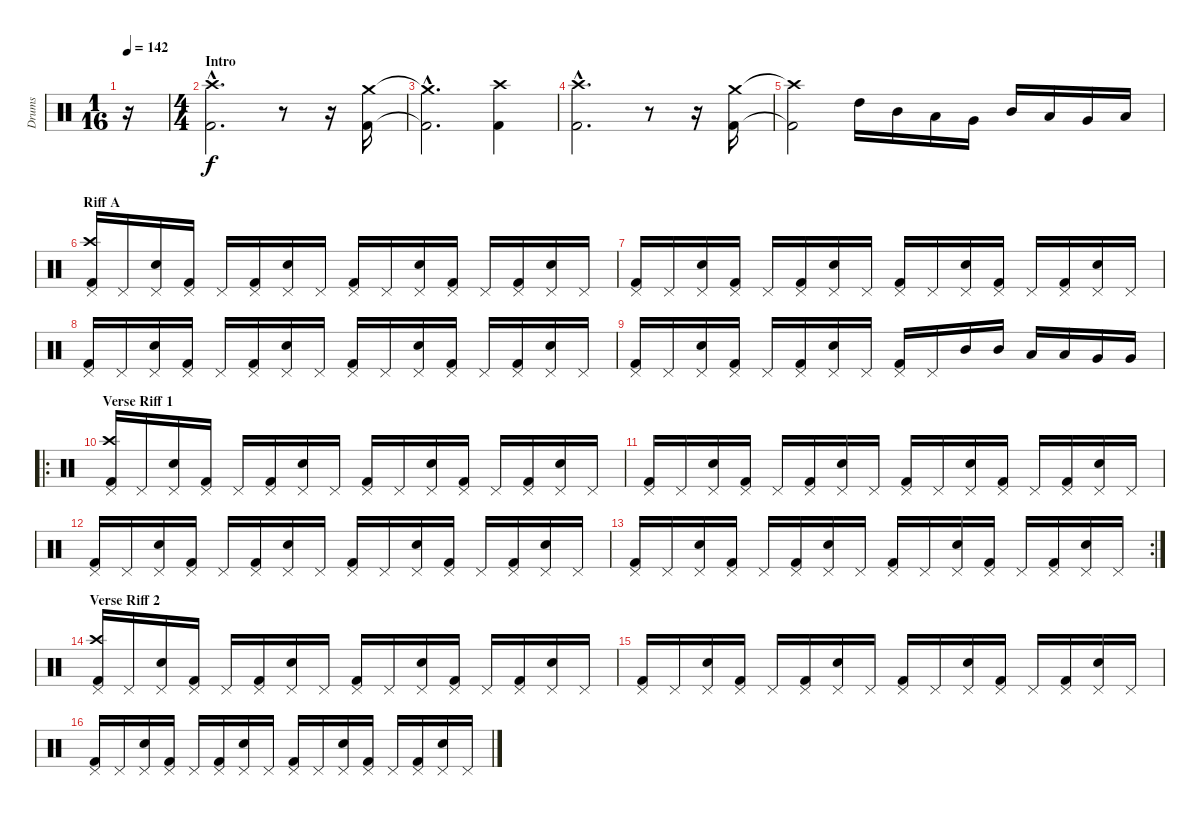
\track ("Drums" "Drums") {instrument percussion}
\staff {score}
\articulation defaults
\ts (1 16)
\tempo 142
\clef neutral
\ks c
r.16{dy f} |
\ts (4 4)
\section ("" "Intro")
("Kick (hit) 2"{hac} "Crash high (hit)"{hac}).2{d} r.8 r.16 ("Kick (hit) 2" "Crash medium (hit)").16 |
("Kick (hit) 2"{hac t} "Crash medium (hit)"{hac t}).2{d} ("Kick (hit) 2" "Crash high (hit)").4 |
("Kick (hit) 2"{hac} "Crash high (hit)"{hac}).2{d} r.8 r.16 ("Kick (hit) 2" "Crash medium (hit)").16 |
("Kick (hit) 2"{t} "Crash high (hit)"{t}).2 "High Tom (hit)".16 "Mid Tom (hit)".16 "Low Tom (hit)".16 "Very Low Tom (hit)".16 "Mid Tom (hit)".16 "Low Tom (hit)".16 "Very Low Tom (hit)".16 "Low Floor Tom (hit)".16 |
\section ("" "Riff A")
("Kick (hit) 2" "Pedal Hi-Hat (hit)" "Crash high (hit)").16 "Pedal Hi-Hat (hit)".16 ("Snare (hit) 2" "Pedal Hi-Hat (hit)").16 ("Kick (hit) 2" "Pedal Hi-Hat (hit)").16 "Pedal Hi-Hat (hit)".16 ("Kick (hit) 2" "Pedal Hi-Hat (hit)").16 ("Snare (hit) 2" "Pedal Hi-Hat (hit)").16 "Pedal Hi-Hat (hit)".16 ("Kick (hit) 2" "Pedal Hi-Hat (hit)").16 "Pedal Hi-Hat (hit)".16 ("Snare (hit) 2" "Pedal Hi-Hat (hit)").16 ("Kick (hit) 2" "Pedal Hi-Hat (hit)").16 "Pedal Hi-Hat (hit)".16 ("Kick (hit) 2" "Pedal Hi-Hat (hit)").16 ("Snare (hit) 2" "Pedal Hi-Hat (hit)").16 "Pedal Hi-Hat (hit)".16 |
("Kick (hit) 2" "Pedal Hi-Hat (hit)").16 "Pedal Hi-Hat (hit)".16 ("Snare (hit) 2" "Pedal Hi-Hat (hit)").16 ("Kick (hit) 2" "Pedal Hi-Hat (hit)").16 "Pedal Hi-Hat (hit)".16 ("Kick (hit) 2" "Pedal Hi-Hat (hit)").16 ("Snare (hit) 2" "Pedal Hi-Hat (hit)").16 "Pedal Hi-Hat (hit)".16 ("Kick (hit) 2" "Pedal Hi-Hat (hit)").16 "Pedal Hi-Hat (hit)".16 ("Snare (hit) 2" "Pedal Hi-Hat (hit)").16 ("Kick (hit) 2" "Pedal Hi-Hat (hit)").16 "Pedal Hi-Hat (hit)".16 ("Kick (hit) 2" "Pedal Hi-Hat (hit)").16 ("Snare (hit) 2" "Pedal Hi-Hat (hit)").16 "Pedal Hi-Hat (hit)".16 |
("Kick (hit) 2" "Pedal Hi-Hat (hit)").16 "Pedal Hi-Hat (hit)".16 ("Snare (hit) 2" "Pedal Hi-Hat (hit)").16 ("Kick (hit) 2" "Pedal Hi-Hat (hit)").16 "Pedal Hi-Hat (hit)".16 ("Kick (hit) 2" "Pedal Hi-Hat (hit)").16 ("Snare (hit) 2" "Pedal Hi-Hat (hit)").16 "Pedal Hi-Hat (hit)".16 ("Kick (hit) 2" "Pedal Hi-Hat (hit)").16 "Pedal Hi-Hat (hit)".16 ("Snare (hit) 2" "Pedal Hi-Hat (hit)").16 ("Kick (hit) 2" "Pedal Hi-Hat (hit)").16 "Pedal Hi-Hat (hit)".16 ("Kick (hit) 2" "Pedal Hi-Hat (hit)").16 ("Snare (hit) 2" "Pedal Hi-Hat (hit)").16 "Pedal Hi-Hat (hit)".16 |
("Kick (hit) 2" "Pedal Hi-Hat (hit)").16 "Pedal Hi-Hat (hit)".16 ("Snare (hit) 2" "Pedal Hi-Hat (hit)").16 ("Kick (hit) 2" "Pedal Hi-Hat (hit)").16 "Pedal Hi-Hat (hit)".16 ("Kick (hit) 2" "Pedal Hi-Hat (hit)").16 ("Snare (hit) 2" "Pedal Hi-Hat (hit)").16 "Pedal Hi-Hat (hit)".16 ("Kick (hit) 2" "Pedal Hi-Hat (hit)").16 "Pedal Hi-Hat (hit)".16 "Mid Tom (hit)".16 "Mid Tom (hit)".16 "Low Tom (hit)".16 "Low Tom (hit)".16 "Very Low Tom (hit)".16 "Very Low Tom (hit)".16 |
\ro
\section ("" "Verse Riff 1")
("Kick (hit) 2" "Pedal Hi-Hat (hit)" "Crash high (hit)").16 "Pedal Hi-Hat (hit)".16 ("Snare (hit) 2" "Pedal Hi-Hat (hit)").16 ("Kick (hit) 2" "Pedal Hi-Hat (hit)").16 "Pedal Hi-Hat (hit)".16 ("Kick (hit) 2" "Pedal Hi-Hat (hit)").16 ("Snare (hit) 2" "Pedal Hi-Hat (hit)").16 "Pedal Hi-Hat (hit)".16 ("Kick (hit) 2" "Pedal Hi-Hat (hit)").16 "Pedal Hi-Hat (hit)".16 ("Snare (hit) 2" "Pedal Hi-Hat (hit)").16 ("Kick (hit) 2" "Pedal Hi-Hat (hit)").16 "Pedal Hi-Hat (hit)".16 ("Kick (hit) 2" "Pedal Hi-Hat (hit)").16 ("Snare (hit) 2" "Pedal Hi-Hat (hit)").16 "Pedal Hi-Hat (hit)".16 |
("Kick (hit) 2" "Pedal Hi-Hat (hit)").16 "Pedal Hi-Hat (hit)".16 ("Snare (hit) 2" "Pedal Hi-Hat (hit)").16 ("Kick (hit) 2" "Pedal Hi-Hat (hit)").16 "Pedal Hi-Hat (hit)".16 ("Kick (hit) 2" "Pedal Hi-Hat (hit)").16 ("Snare (hit) 2" "Pedal Hi-Hat (hit)").16 "Pedal Hi-Hat (hit)".16 ("Kick (hit) 2" "Pedal Hi-Hat (hit)").16 "Pedal Hi-Hat (hit)".16 ("Snare (hit) 2" "Pedal Hi-Hat (hit)").16 ("Kick (hit) 2" "Pedal Hi-Hat (hit)").16 "Pedal Hi-Hat (hit)".16 ("Kick (hit) 2" "Pedal Hi-Hat (hit)").16 ("Snare (hit) 2" "Pedal Hi-Hat (hit)").16 "Pedal Hi-Hat (hit)".16 |
("Kick (hit) 2" "Pedal Hi-Hat (hit)").16 "Pedal Hi-Hat (hit)".16 ("Snare (hit) 2" "Pedal Hi-Hat (hit)").16 ("Kick (hit) 2" "Pedal Hi-Hat (hit)").16 "Pedal Hi-Hat (hit)".16 ("Kick (hit) 2" "Pedal Hi-Hat (hit)").16 ("Snare (hit) 2" "Pedal Hi-Hat (hit)").16 "Pedal Hi-Hat (hit)".16 ("Kick (hit) 2" "Pedal Hi-Hat (hit)").16 "Pedal Hi-Hat (hit)".16 ("Snare (hit) 2" "Pedal Hi-Hat (hit)").16 ("Kick (hit) 2" "Pedal Hi-Hat (hit)").16 "Pedal Hi-Hat (hit)".16 ("Kick (hit) 2" "Pedal Hi-Hat (hit)").16 ("Snare (hit) 2" "Pedal Hi-Hat (hit)").16 "Pedal Hi-Hat (hit)".16 |
\rc 2
("Kick (hit) 2" "Pedal Hi-Hat (hit)").16 "Pedal Hi-Hat (hit)".16 ("Snare (hit) 2" "Pedal Hi-Hat (hit)").16 ("Kick (hit) 2" "Pedal Hi-Hat (hit)").16 "Pedal Hi-Hat (hit)".16 ("Kick (hit) 2" "Pedal Hi-Hat (hit)").16 ("Snare (hit) 2" "Pedal Hi-Hat (hit)").16 "Pedal Hi-Hat (hit)".16 ("Kick (hit) 2" "Pedal Hi-Hat (hit)").16 "Pedal Hi-Hat (hit)".16 ("Snare (hit) 2" "Pedal Hi-Hat (hit)").16 ("Kick (hit) 2" "Pedal Hi-Hat (hit)").16 "Pedal Hi-Hat (hit)".16 ("Kick (hit) 2" "Pedal Hi-Hat (hit)").16 ("Snare (hit) 2" "Pedal Hi-Hat (hit)").16 "Pedal Hi-Hat (hit)".16 |
\section ("" "Verse Riff 2")
("Kick (hit) 2" "Pedal Hi-Hat (hit)" "Crash high (hit)").16 "Pedal Hi-Hat (hit)".16 ("Snare (hit) 2" "Pedal Hi-Hat (hit)").16 ("Kick (hit) 2" "Pedal Hi-Hat (hit)").16 "Pedal Hi-Hat (hit)".16 ("Kick (hit) 2" "Pedal Hi-Hat (hit)").16 ("Snare (hit) 2" "Pedal Hi-Hat (hit)").16 "Pedal Hi-Hat (hit)".16 ("Kick (hit) 2" "Pedal Hi-Hat (hit)").16 "Pedal Hi-Hat (hit)".16 ("Snare (hit) 2" "Pedal Hi-Hat (hit)").16 ("Kick (hit) 2" "Pedal Hi-Hat (hit)").16 "Pedal Hi-Hat (hit)".16 ("Kick (hit) 2" "Pedal Hi-Hat (hit)").16 ("Snare (hit) 2" "Pedal Hi-Hat (hit)").16 "Pedal Hi-Hat (hit)".16 |
("Kick (hit) 2" "Pedal Hi-Hat (hit)").16 "Pedal Hi-Hat (hit)".16 ("Snare (hit) 2" "Pedal Hi-Hat (hit)").16 ("Kick (hit) 2" "Pedal Hi-Hat (hit)").16 "Pedal Hi-Hat (hit)".16 ("Kick (hit) 2" "Pedal Hi-Hat (hit)").16 ("Snare (hit) 2" "Pedal Hi-Hat (hit)").16 "Pedal Hi-Hat (hit)".16 ("Kick (hit) 2" "Pedal Hi-Hat (hit)").16 "Pedal Hi-Hat (hit)".16 ("Snare (hit) 2" "Pedal Hi-Hat (hit)").16 ("Kick (hit) 2" "Pedal Hi-Hat (hit)").16 "Pedal Hi-Hat (hit)".16 ("Kick (hit) 2" "Pedal Hi-Hat (hit)").16 ("Snare (hit) 2" "Pedal Hi-Hat (hit)").16 "Pedal Hi-Hat (hit)".16 |
("Kick (hit) 2" "Pedal Hi-Hat (hit)").16 "Pedal Hi-Hat (hit)".16 ("Snare (hit) 2" "Pedal Hi-Hat (hit)").16 ("Kick (hit) 2" "Pedal Hi-Hat (hit)").16 "Pedal Hi-Hat (hit)".16 ("Kick (hit) 2" "Pedal Hi-Hat (hit)").16 ("Snare (hit) 2" "Pedal Hi-Hat (hit)").16 "Pedal Hi-Hat (hit)".16 ("Kick (hit) 2" "Pedal Hi-Hat (hit)").16 "Pedal Hi-Hat (hit)".16 ("Snare (hit) 2" "Pedal Hi-Hat (hit)").16 ("Kick (hit) 2" "Pedal Hi-Hat (hit)").16 "Pedal Hi-Hat (hit)".16 ("Kick (hit) 2" "Pedal Hi-Hat (hit)").16 ("Snare (hit) 2" "Pedal Hi-Hat (hit)").16 "Pedal Hi-Hat (hit)".16
